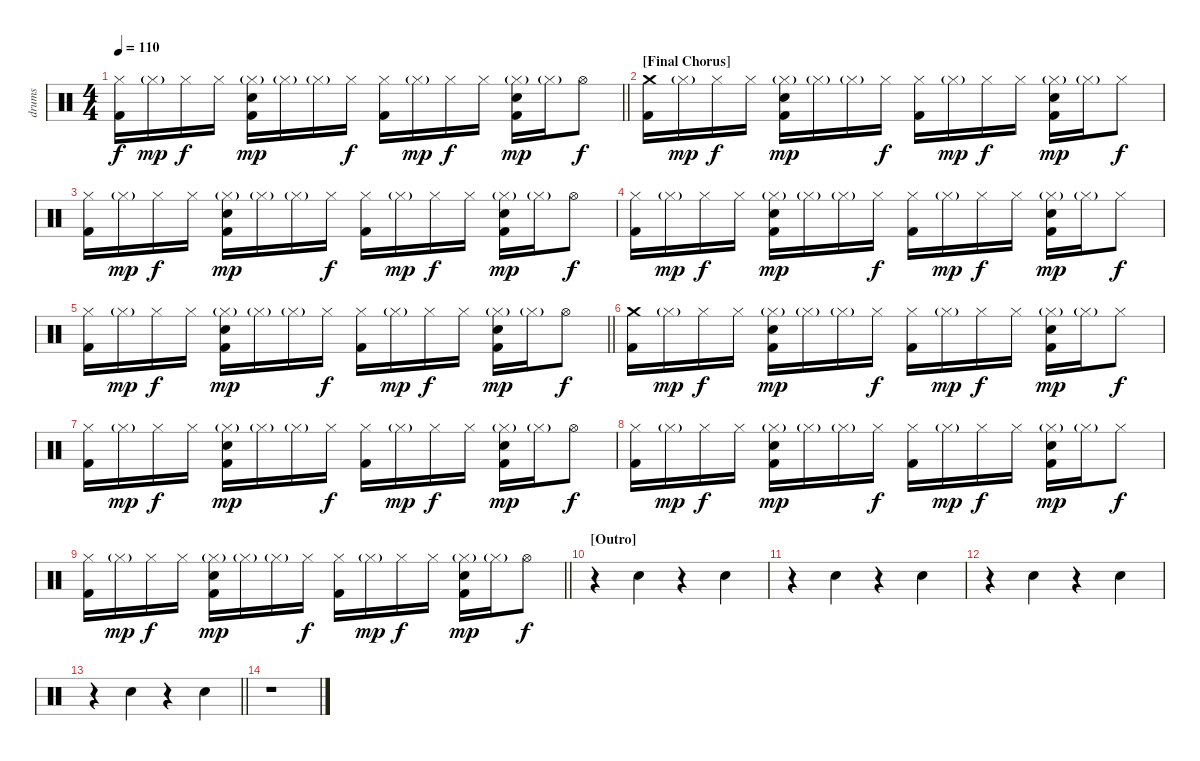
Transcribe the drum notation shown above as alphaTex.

\track ("drums" "drums") {instrument percussion}
\staff {score}
\articulation defaults
\ts (4 4)
\tempo 110
\clef neutral
\barLineRight lightlight
\ks c
("Hi-Hat (closed)" "Kick (hit) 2").16{dy f} "Hi-Hat (closed)"{g}.16{dy mp} "Hi-Hat (closed)".16{dy f} "Hi-Hat (closed)".16 ("Hi-Hat (closed)"{g} "Electric Snare (hit)" "Kick (hit) 2").16{dy mp} "Hi-Hat (closed)"{g}.16 "Hi-Hat (closed)"{g}.16 "Hi-Hat (closed)".16{dy f} ("Hi-Hat (closed)" "Kick (hit) 2").16 "Hi-Hat (closed)"{g}.16{dy mp} "Hi-Hat (closed)".16{dy f} "Hi-Hat (closed)".16 ("Hi-Hat (closed)"{g} "Electric Snare (hit)" "Kick (hit) 2").16{dy mp} "Hi-Hat (closed)"{g}.16 "Hi-Hat (open)".8{dy f} |
\section ("" "[Final Chorus]")
("Crash medium (hit)" "Kick (hit) 2").16 "Hi-Hat (closed)"{g}.16{dy mp} "Hi-Hat (closed)".16{dy f} "Hi-Hat (closed)".16 ("Hi-Hat (closed)"{g} "Electric Snare (hit)" "Kick (hit) 2").16{dy mp} "Hi-Hat (closed)"{g}.16 "Hi-Hat (closed)"{g}.16 "Hi-Hat (closed)".16{dy f} ("Hi-Hat (closed)" "Kick (hit) 2").16 "Hi-Hat (closed)"{g}.16{dy mp} "Hi-Hat (closed)".16{dy f} "Hi-Hat (closed)".16 ("Hi-Hat (closed)"{g} "Electric Snare (hit)" "Kick (hit) 2").16{dy mp} "Hi-Hat (closed)"{g}.16 "Hi-Hat (closed)".8{dy f} |
("Hi-Hat (closed)" "Kick (hit) 2").16 "Hi-Hat (closed)"{g}.16{dy mp} "Hi-Hat (closed)".16{dy f} "Hi-Hat (closed)".16 ("Hi-Hat (closed)"{g} "Electric Snare (hit)" "Kick (hit) 2").16{dy mp} "Hi-Hat (closed)"{g}.16 "Hi-Hat (closed)"{g}.16 "Hi-Hat (closed)".16{dy f} ("Hi-Hat (closed)" "Kick (hit) 2").16 "Hi-Hat (closed)"{g}.16{dy mp} "Hi-Hat (closed)".16{dy f} "Hi-Hat (closed)".16 ("Hi-Hat (closed)"{g} "Electric Snare (hit)" "Kick (hit) 2").16{dy mp} "Hi-Hat (closed)"{g}.16 "Hi-Hat (open)".8{dy f} |
("Hi-Hat (closed)" "Kick (hit) 2").16 "Hi-Hat (closed)"{g}.16{dy mp} "Hi-Hat (closed)".16{dy f} "Hi-Hat (closed)".16 ("Hi-Hat (closed)"{g} "Electric Snare (hit)" "Kick (hit) 2").16{dy mp} "Hi-Hat (closed)"{g}.16 "Hi-Hat (closed)"{g}.16 "Hi-Hat (closed)".16{dy f} ("Hi-Hat (closed)" "Kick (hit) 2").16 "Hi-Hat (closed)"{g}.16{dy mp} "Hi-Hat (closed)".16{dy f} "Hi-Hat (closed)".16 ("Hi-Hat (closed)"{g} "Electric Snare (hit)" "Kick (hit) 2").16{dy mp} "Hi-Hat (closed)"{g}.16 "Hi-Hat (closed)".8{dy f} |
\barLineRight lightlight
("Hi-Hat (closed)" "Kick (hit) 2").16 "Hi-Hat (closed)"{g}.16{dy mp} "Hi-Hat (closed)".16{dy f} "Hi-Hat (closed)".16 ("Hi-Hat (closed)"{g} "Electric Snare (hit)" "Kick (hit) 2").16{dy mp} "Hi-Hat (closed)"{g}.16 "Hi-Hat (closed)"{g}.16 "Hi-Hat (closed)".16{dy f} ("Hi-Hat (closed)" "Kick (hit) 2").16 "Hi-Hat (closed)"{g}.16{dy mp} "Hi-Hat (closed)".16{dy f} "Hi-Hat (closed)".16 ("Hi-Hat (closed)"{g} "Electric Snare (hit)" "Kick (hit) 2").16{dy mp} "Hi-Hat (closed)"{g}.16 "Hi-Hat (open)".8{dy f} |
("Crash medium (hit)" "Kick (hit) 2").16 "Hi-Hat (closed)"{g}.16{dy mp} "Hi-Hat (closed)".16{dy f} "Hi-Hat (closed)".16 ("Hi-Hat (closed)"{g} "Electric Snare (hit)" "Kick (hit) 2").16{dy mp} "Hi-Hat (closed)"{g}.16 "Hi-Hat (closed)"{g}.16 "Hi-Hat (closed)".16{dy f} ("Hi-Hat (closed)" "Kick (hit) 2").16 "Hi-Hat (closed)"{g}.16{dy mp} "Hi-Hat (closed)".16{dy f} "Hi-Hat (closed)".16 ("Hi-Hat (closed)"{g} "Electric Snare (hit)" "Kick (hit) 2").16{dy mp} "Hi-Hat (closed)"{g}.16 "Hi-Hat (closed)".8{dy f} |
("Hi-Hat (closed)" "Kick (hit) 2").16 "Hi-Hat (closed)"{g}.16{dy mp} "Hi-Hat (closed)".16{dy f} "Hi-Hat (closed)".16 ("Hi-Hat (closed)"{g} "Electric Snare (hit)" "Kick (hit) 2").16{dy mp} "Hi-Hat (closed)"{g}.16 "Hi-Hat (closed)"{g}.16 "Hi-Hat (closed)".16{dy f} ("Hi-Hat (closed)" "Kick (hit) 2").16 "Hi-Hat (closed)"{g}.16{dy mp} "Hi-Hat (closed)".16{dy f} "Hi-Hat (closed)".16 ("Hi-Hat (closed)"{g} "Electric Snare (hit)" "Kick (hit) 2").16{dy mp} "Hi-Hat (closed)"{g}.16 "Hi-Hat (open)".8{dy f} |
("Hi-Hat (closed)" "Kick (hit) 2").16 "Hi-Hat (closed)"{g}.16{dy mp} "Hi-Hat (closed)".16{dy f} "Hi-Hat (closed)".16 ("Hi-Hat (closed)"{g} "Electric Snare (hit)" "Kick (hit) 2").16{dy mp} "Hi-Hat (closed)"{g}.16 "Hi-Hat (closed)"{g}.16 "Hi-Hat (closed)".16{dy f} ("Hi-Hat (closed)" "Kick (hit) 2").16 "Hi-Hat (closed)"{g}.16{dy mp} "Hi-Hat (closed)".16{dy f} "Hi-Hat (closed)".16 ("Hi-Hat (closed)"{g} "Electric Snare (hit)" "Kick (hit) 2").16{dy mp} "Hi-Hat (closed)"{g}.16 "Hi-Hat (closed)".8{dy f} |
\barLineRight lightlight
("Hi-Hat (closed)" "Kick (hit) 2").16 "Hi-Hat (closed)"{g}.16{dy mp} "Hi-Hat (closed)".16{dy f} "Hi-Hat (closed)".16 ("Hi-Hat (closed)"{g} "Electric Snare (hit)" "Kick (hit) 2").16{dy mp} "Hi-Hat (closed)"{g}.16 "Hi-Hat (closed)"{g}.16 "Hi-Hat (closed)".16{dy f} ("Hi-Hat (closed)" "Kick (hit) 2").16 "Hi-Hat (closed)"{g}.16{dy mp} "Hi-Hat (closed)".16{dy f} "Hi-Hat (closed)".16 ("Hi-Hat (closed)"{g} "Electric Snare (hit)" "Kick (hit) 2").16{dy mp} "Hi-Hat (closed)"{g}.16 "Hi-Hat (open)".8{dy f} |
\section ("" "[Outro]")
r.4 "Hand Clap (hit)".4 r.4 "Hand Clap (hit)".4 |
r.4 "Hand Clap (hit)".4 r.4 "Hand Clap (hit)".4 |
r.4 "Hand Clap (hit)".4 r.4 "Hand Clap (hit)".4 |
\barLineRight lightlight
r.4 "Hand Clap (hit)".4 r.4 "Hand Clap (hit)".4 |
r.1
